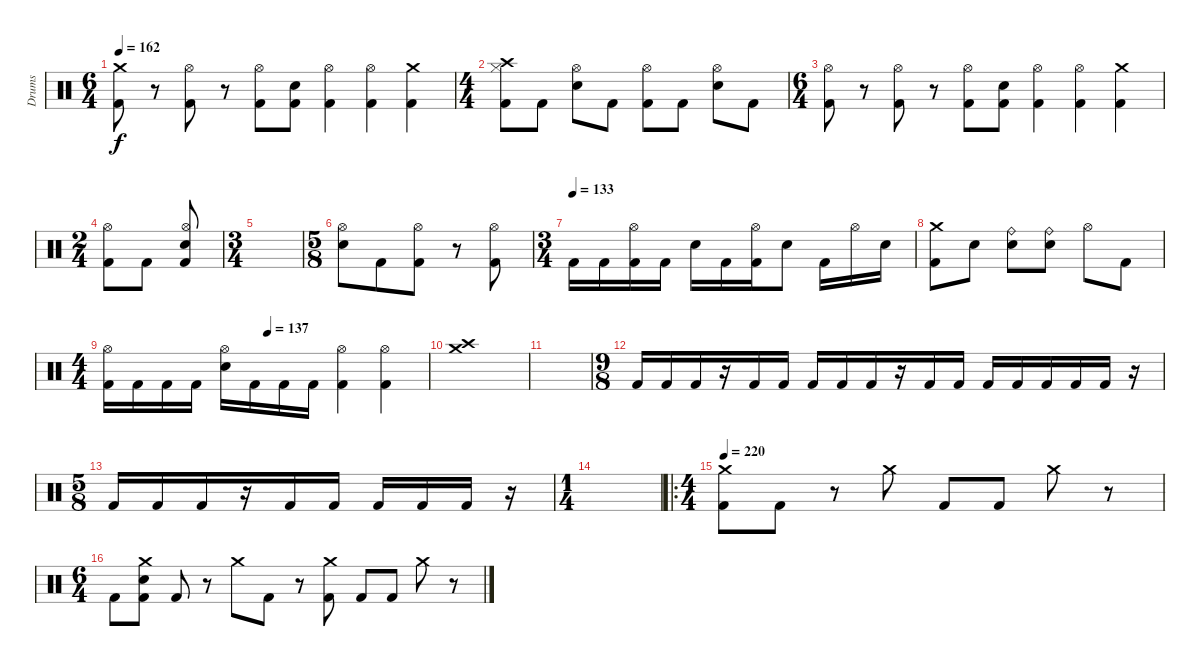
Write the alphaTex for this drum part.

\track ("Drums" "Drums") {instrument percussion}
\staff {score}
\articulation defaults
\ts (6 4)
\tempo 162
\clef neutral
\ks c
("Crash medium (hit)" "Kick (hit) 2").8{dy f} r.8 ("Hi-Hat (open)" "Kick (hit) 2").8 r.8 ("Hi-Hat (open)" "Kick (hit) 2").8 ("Electric Snare (hit)" "Kick (hit) 2").8 ("Hi-Hat (open)" "Kick (hit) 2").4 ("Hi-Hat (open)" "Kick (hit) 2").4 ("Crash medium (hit)" "Kick (hit) 2").4 |
\ts (4 4)
("Hi-Hat (closed)" "Crash high (hit)" "Kick (hit) 2").8 "Kick (hit) 2".8 ("Hi-Hat (open)" "Electric Snare (hit)").8 "Kick (hit) 2".8 ("Hi-Hat (open)" "Kick (hit) 2").8 "Kick (hit) 2".8 ("Hi-Hat (open)" "Electric Snare (hit)").8 "Kick (hit) 2".8 |
\ts (6 4)
("Hi-Hat (open)" "Kick (hit) 2").8 r.8 ("Hi-Hat (open)" "Kick (hit) 2").8 r.8 ("Hi-Hat (open)" "Kick (hit) 2").8 ("Electric Snare (hit)" "Kick (hit) 2").8 ("Hi-Hat (open)" "Kick (hit) 2").4 ("Hi-Hat (open)" "Kick (hit) 2").4 ("Crash medium (hit)" "Kick (hit) 2").4 |
\ts (2 4)
("Hi-Hat (open)" "Kick (hit) 2").8 "Kick (hit) 2".8 ("Hi-Hat (open)" "Electric Snare (hit)" "Kick (hit) 2").8 |
\ts (3 4)
|
\ts (5 8)
("Hi-Hat (open)" "Electric Snare (hit)").8 "Kick (hit) 2".8 ("Hi-Hat (open)" "Kick (hit) 2").8 r.8 ("Hi-Hat (open)" "Kick (hit) 2").8 |
\ts (3 4)
\tempo (133)
"Kick (hit) 2".16 "Kick (hit) 2".16 ("Hi-Hat (open)" "Kick (hit) 2").16 "Kick (hit) 2".16 "Electric Snare (hit)".16 "Kick (hit) 2".16 ("Hi-Hat (open)" "Kick (hit) 2").16 "Electric Snare (hit)".8 "Kick (hit) 2".16 "Hi-Hat (open)".16 "Electric Snare (hit)".16 |
("Crash medium (hit)" "Kick (hit) 2").8 "Electric Snare (hit)".8 ("Ride (bell)" "Snare (hit) 2").8 ("Ride (bell)" "Snare (hit) 2").8 "Hi-Hat (open)".8 "Kick (hit) 2".8 |
\ts (4 4)
\tempo (137 0.5)
("Hi-Hat (open)" "Kick (hit) 2").16 "Kick (hit) 2".16 "Kick (hit) 2".16 "Kick (hit) 2".16 ("Hi-Hat (open)" "Electric Snare (hit)").16 "Kick (hit) 2".16 "Kick (hit) 2".16 "Kick (hit) 2".16 ("Hi-Hat (open)" "Kick (hit) 2").4 ("Hi-Hat (open)" "Kick (hit) 2").4 |
("Crash medium (hit)" "Crash high (hit)").1 |
|
\ts (9 8)
"Kick (hit) 2".16 "Kick (hit) 2".16 "Kick (hit) 2".16 r.16 "Kick (hit) 2".16 "Kick (hit) 2".16 "Kick (hit) 2".16 "Kick (hit) 2".16 "Kick (hit) 2".16 r.16 "Kick (hit) 2".16 "Kick (hit) 2".16 "Kick (hit) 2".16 "Kick (hit) 2".16 "Kick (hit) 2".16 "Kick (hit) 2".16 "Kick (hit) 2".16 r.16 |
\ts (5 8)
"Kick (hit) 2".16 "Kick (hit) 2".16 "Kick (hit) 2".16 r.16 "Kick (hit) 2".16 "Kick (hit) 2".16 "Kick (hit) 2".16 "Kick (hit) 2".16 "Kick (hit) 2".16 r.16 |
\ts (1 4)
|
\ro
\ts (4 4)
\tempo 220
("Crash medium (hit)" "Kick (hit) 2").8 "Kick (hit) 2".8 r.8 "Crash medium (hit)".8 "Kick (hit) 2".8 "Kick (hit) 2".8 "Crash medium (hit)".8 r.8 |
\ts (6 4)
"Kick (hit) 2".8 ("Crash medium (hit)" "Electric Snare (hit)" "Kick (hit) 2").8 "Kick (hit) 2".8 r.8 "Crash medium (hit)".8 "Kick (hit) 2".8 r.8 ("Crash medium (hit)" "Kick (hit) 2").8 "Kick (hit) 2".8 "Kick (hit) 2".8 "Crash medium (hit)".8 r.8
